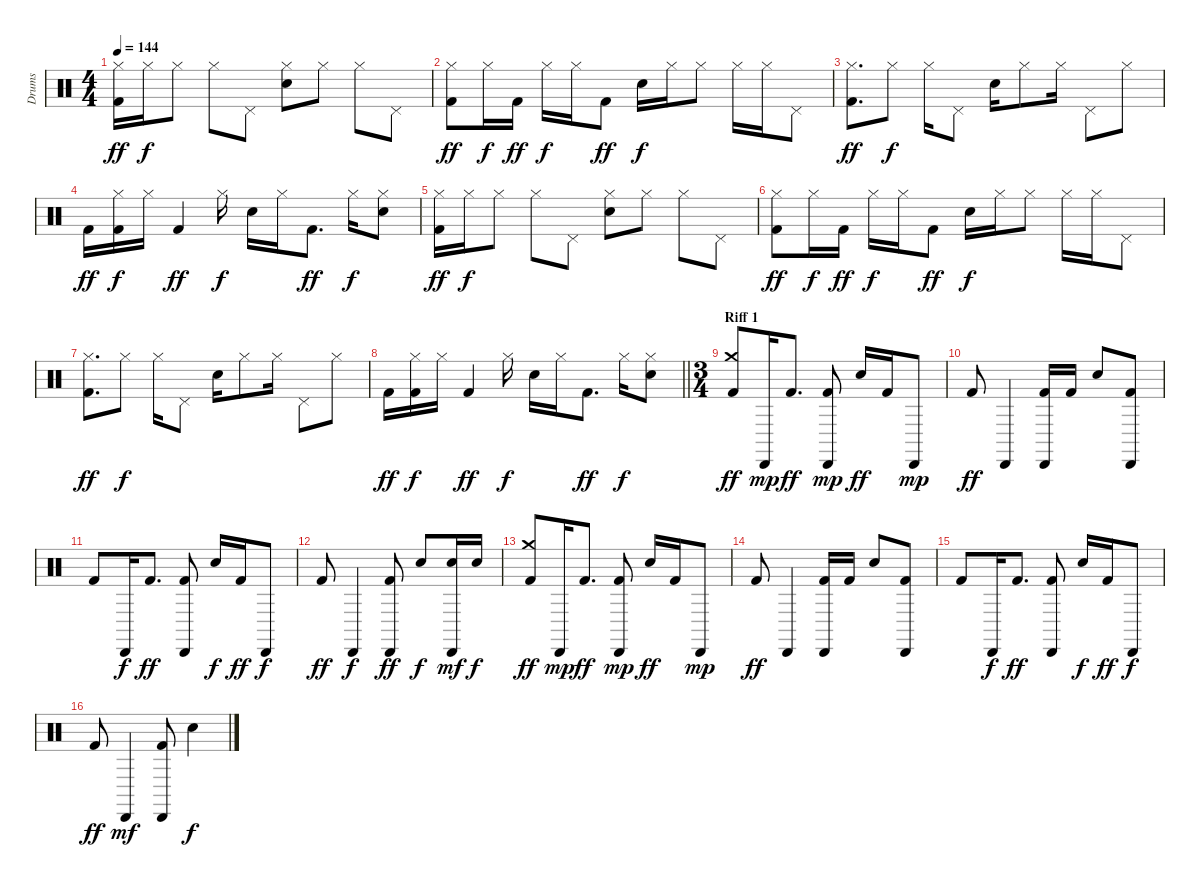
\track ("Drums" "Drums") {instrument percussion}
\staff {score}
\articulation defaults
\ts (4 4)
\tempo 144
\clef neutral
\ks c
("Kick (hit) 2" "Hi-Hat (closed)").16{dy ff} "Hi-Hat (closed)".16{dy f} "Hi-Hat (closed)".8 "Hi-Hat (closed)".8 "Pedal Hi-Hat (hit)".8 ("Snare (hit) 2" "Hi-Hat (closed)").8 "Hi-Hat (closed)".8 "Hi-Hat (closed)".8 "Pedal Hi-Hat (hit)".8 |
("Kick (hit) 2" "Hi-Hat (closed)").8{dy ff} "Hi-Hat (closed)".16{dy f} "Kick (hit) 2".16{dy ff} "Hi-Hat (closed)".16{dy f} "Hi-Hat (closed)".16 "Kick (hit) 2".8{dy ff} "Snare (hit) 2".16{dy f} "Hi-Hat (closed)".16 "Hi-Hat (closed)".8 "Hi-Hat (closed)".16 "Hi-Hat (closed)".16 "Pedal Hi-Hat (hit)".8 |
("Kick (hit) 2" "Hi-Hat (closed)").8{d dy ff} "Hi-Hat (closed)".8{dy f} "Hi-Hat (closed)".16 "Pedal Hi-Hat (hit)".8 "Snare (hit) 2".16 "Hi-Hat (closed)".8 "Hi-Hat (closed)".16 "Pedal Hi-Hat (hit)".8 "Hi-Hat (closed)".8 |
"Kick (hit) 2".16{dy ff} ("Kick (hit) 2" "Hi-Hat (closed)").16{dy f} "Hi-Hat (closed)".16 "Kick (hit) 2".4{dy ff} "Hi-Hat (closed)".16{dy f} "Snare (hit) 2".16 "Hi-Hat (closed)".16 "Kick (hit) 2".8{d dy ff} "Hi-Hat (closed)".16{dy f} ("Snare (hit) 2" "Hi-Hat (closed)").8 |
("Kick (hit) 2" "Hi-Hat (closed)").16{dy ff} "Hi-Hat (closed)".16{dy f} "Hi-Hat (closed)".8 "Hi-Hat (closed)".8 "Pedal Hi-Hat (hit)".8 ("Snare (hit) 2" "Hi-Hat (closed)").8 "Hi-Hat (closed)".8 "Hi-Hat (closed)".8 "Pedal Hi-Hat (hit)".8 |
("Kick (hit) 2" "Hi-Hat (closed)").8{dy ff} "Hi-Hat (closed)".16{dy f} "Kick (hit) 2".16{dy ff} "Hi-Hat (closed)".16{dy f} "Hi-Hat (closed)".16 "Kick (hit) 2".8{dy ff} "Snare (hit) 2".16{dy f} "Hi-Hat (closed)".16 "Hi-Hat (closed)".8 "Hi-Hat (closed)".16 "Hi-Hat (closed)".16 "Pedal Hi-Hat (hit)".8 |
("Kick (hit) 2" "Hi-Hat (closed)").8{d dy ff} "Hi-Hat (closed)".8{dy f} "Hi-Hat (closed)".16 "Pedal Hi-Hat (hit)".8 "Snare (hit) 2".16 "Hi-Hat (closed)".8 "Hi-Hat (closed)".16 "Pedal Hi-Hat (hit)".8 "Hi-Hat (closed)".8 |
\barLineRight lightlight "Kick (hit) 2".16{dy ff}
("Kick (hit) 2" "Hi-Hat (closed)").16{dy f} "Hi-Hat (closed)".16 "Kick (hit) 2".4{dy ff} "Hi-Hat (closed)".16{dy f} "Snare (hit) 2".16 "Hi-Hat (closed)".16 "Kick (hit) 2".8{d dy ff} "Hi-Hat (closed)".16{dy f} ("Snare (hit) 2" "Hi-Hat (closed)").8 |
\ts (3 4)
\section ("" "Riff 1")
("Kick (hit) 2" "Crash medium (hit)").8{dy ff} "Cabasa (hit)".16{dy mp} "Kick (hit) 2".8{d dy ff} ("Kick (hit) 2" "Cabasa (hit)").8{dy mp} "Snare (hit) 2".16{dy ff} "Kick (hit) 2".16 "Cabasa (hit)".8{dy mp} |
"Kick (hit) 2".8{dy ff} "Cabasa (hit)".4 ("Kick (hit) 2" "Cabasa (hit)").16 "Kick (hit) 2".16 "Snare (hit) 2".8 ("Kick (hit) 2" "Cabasa (hit)").8 |
"Kick (hit) 2".8 "Cabasa (hit)".16{dy f} "Kick (hit) 2".8{d dy ff} ("Kick (hit) 2" "Cabasa (hit)").8 "Snare (hit) 2".16{dy f} "Kick (hit) 2".16{dy ff} "Cabasa (hit)".8{dy f} |
"Kick (hit) 2".8{dy ff} "Cabasa (hit)".4{dy f} ("Kick (hit) 2" "Cabasa (hit)").8{dy ff} "Snare (hit) 2".8{dy f} ("Snare (hit) 2" "Cabasa (hit)").16{dy mf} "Snare (hit) 2".16{dy f} |
("Kick (hit) 2" "Crash medium (hit)").8{dy ff} "Cabasa (hit)".16{dy mp} "Kick (hit) 2".8{d dy ff} ("Kick (hit) 2" "Cabasa (hit)").8{dy mp} "Snare (hit) 2".16{dy ff} "Kick (hit) 2".16 "Cabasa (hit)".8{dy mp} |
"Kick (hit) 2".8{dy ff} "Cabasa (hit)".4 ("Kick (hit) 2" "Cabasa (hit)").16 "Kick (hit) 2".16 "Snare (hit) 2".8 ("Kick (hit) 2" "Cabasa (hit)").8 |
"Kick (hit) 2".8 "Cabasa (hit)".16{dy f} "Kick (hit) 2".8{d dy ff} ("Kick (hit) 2" "Cabasa (hit)").8 "Snare (hit) 2".16{dy f} "Kick (hit) 2".16{dy ff} "Cabasa (hit)".8{dy f} |
"Kick (hit) 2".8{dy ff} "Cabasa (hit)".4{dy mf} ("Kick (hit) 2" "Cabasa (hit)").8 "Snare (hit) 2".4{dy f}
